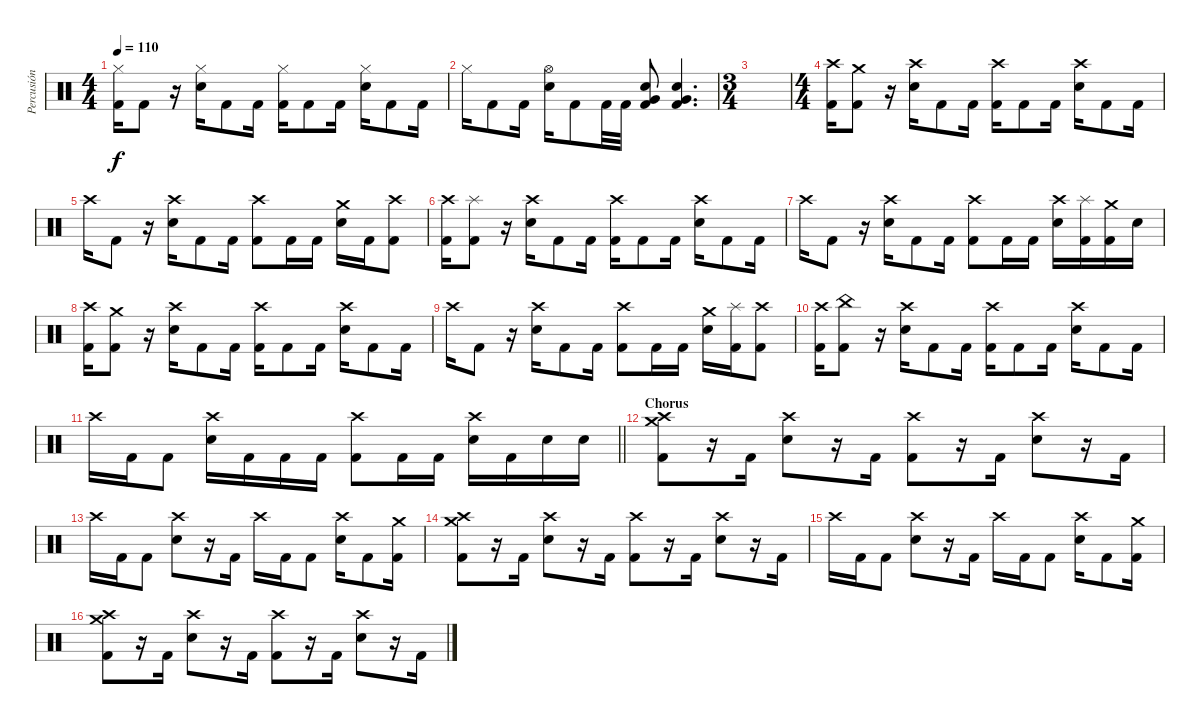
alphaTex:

\track ("Percusión" "Percusión") {instrument percussion}
\staff {score}
\articulation defaults
\ts (4 4)
\tempo 110
\clef neutral
\ks c
("Hi-Hat (closed)" "Kick (hit) 2").16{dy f} "Kick (hit) 2".8 r.16 ("Hi-Hat (closed)" "Snare (hit) 2").16 "Kick (hit) 2".8 "Kick (hit) 2".16 ("Hi-Hat (closed)" "Kick (hit) 2").16 "Kick (hit) 2".8 "Kick (hit) 2".16 ("Hi-Hat (closed)" "Snare (hit) 2").16 "Kick (hit) 2".8 "Kick (hit) 2".16 |
"Hi-Hat (closed)".16 "Kick (hit) 2".8 "Kick (hit) 2".16 ("Hi-Hat (open)" "Snare (hit) 2").16 "Kick (hit) 2".8 "Kick (hit) 2".32 "Kick (hit) 2".32 ("Snare (hit) 2" "Very Low Tom (hit)" "Kick (hit) 2").8 ("Snare (hit) 2" "Very Low Tom (hit)" "Kick (hit) 2").4{d} |
\ts (3 4)
|
\ts (4 4)
("Crash high (hit)" "Kick (hit) 2").16 ("Crash medium (hit)" "Kick (hit) 2").8 r.16 ("Crash high (hit)" "Snare (hit) 2").16 "Kick (hit) 2".8 "Kick (hit) 2".16 ("Crash high (hit)" "Kick (hit) 2").16 "Kick (hit) 2".8 "Kick (hit) 2".16 ("Crash high (hit)" "Snare (hit) 2").16 "Kick (hit) 2".8 "Kick (hit) 2".16 |
"Crash high (hit)".16 "Kick (hit) 2".8 r.16 ("Crash high (hit)" "Snare (hit) 2").16 "Kick (hit) 2".8 "Kick (hit) 2".16 ("Crash high (hit)" "Kick (hit) 2").8 "Kick (hit) 2".16 "Kick (hit) 2".16 ("Crash medium (hit)" "Snare (hit) 2").16 "Kick (hit) 2".16 ("Crash high (hit)" "Kick (hit) 2").8 |
("Crash high (hit)" "Kick (hit) 2").16 ("Splash (hit)" "Kick (hit) 2").8 r.16 ("Crash high (hit)" "Snare (hit) 2").16 "Kick (hit) 2".8 "Kick (hit) 2".16 ("Crash high (hit)" "Kick (hit) 2").16 "Kick (hit) 2".8 "Kick (hit) 2".16 ("Crash high (hit)" "Snare (hit) 2").16 "Kick (hit) 2".8 "Kick (hit) 2".16 |
"Crash high (hit)".16 "Kick (hit) 2".8 r.16 ("Crash high (hit)" "Snare (hit) 2").16 "Kick (hit) 2".8 "Kick (hit) 2".16 ("Crash high (hit)" "Kick (hit) 2").8 "Kick (hit) 2".16 "Kick (hit) 2".16 ("Crash high (hit)" "Snare (hit) 2").16 ("Splash (hit)" "Kick (hit) 2").16 ("Crash medium (hit)" "Kick (hit) 2").16 "Snare (hit) 2".16 |
("Crash high (hit)" "Kick (hit) 2").16 ("Crash medium (hit)" "Kick (hit) 2").8 r.16 ("Crash high (hit)" "Snare (hit) 2").16 "Kick (hit) 2".8 "Kick (hit) 2".16 ("Crash high (hit)" "Kick (hit) 2").16 "Kick (hit) 2".8 "Kick (hit) 2".16 ("Crash high (hit)" "Snare (hit) 2").16 "Kick (hit) 2".8 "Kick (hit) 2".16 |
"Crash high (hit)".16 "Kick (hit) 2".8 r.16 ("Crash high (hit)" "Snare (hit) 2").16 "Kick (hit) 2".8 "Kick (hit) 2".16 ("Crash high (hit)" "Kick (hit) 2").8 "Kick (hit) 2".16 "Kick (hit) 2".16 ("Crash medium (hit)" "Snare (hit) 2").16 ("Splash (hit)" "Kick (hit) 2").16 ("Crash high (hit)" "Kick (hit) 2").8 |
("Crash high (hit)" "Kick (hit) 2").16 ("China (hit)" "Kick (hit) 2").8 r.16 ("Crash high (hit)" "Snare (hit) 2").16 "Kick (hit) 2".8 "Kick (hit) 2".16 ("Crash high (hit)" "Kick (hit) 2").16 "Kick (hit) 2".8 "Kick (hit) 2".16 ("Crash high (hit)" "Snare (hit) 2").16 "Kick (hit) 2".8 "Kick (hit) 2".16 |
\barLineRight lightlight "Crash high (hit)".16 "Kick (hit) 2".16 "Kick (hit) 2".8
("Crash high (hit)" "Snare (hit) 2").16 "Kick (hit) 2".16 "Kick (hit) 2".16 "Kick (hit) 2".16 ("Crash high (hit)" "Kick (hit) 2").8 "Kick (hit) 2".16 "Kick (hit) 2".16 ("Crash high (hit)" "Snare (hit) 2").16 "Kick (hit) 2".16 "Snare (hit) 2".16 "Snare (hit) 2".16 |
\section ("" "Chorus")
("Crash high (hit)" "Crash medium (hit)" "Kick (hit) 2").8 r.16 "Kick (hit) 2".16 ("Crash high (hit)" "Snare (hit) 2").8 r.16 "Kick (hit) 2".16 ("Crash high (hit)" "Kick (hit) 2").8 r.16 "Kick (hit) 2".16 ("Crash high (hit)" "Snare (hit) 2").8 r.16 "Kick (hit) 2".16 |
"Crash high (hit)".16 "Kick (hit) 2".16 "Kick (hit) 2".8 ("Crash high (hit)" "Snare (hit) 2").8 r.16 "Kick (hit) 2".16 "Crash high (hit)".16 "Kick (hit) 2".16 "Kick (hit) 2".8 ("Crash high (hit)" "Snare (hit) 2").16 "Kick (hit) 2".8 ("Crash medium (hit)" "Kick (hit) 2").16 |
("Crash high (hit)" "Crash medium (hit)" "Kick (hit) 2").8 r.16 "Kick (hit) 2".16 ("Crash high (hit)" "Snare (hit) 2").8 r.16 "Kick (hit) 2".16 ("Crash high (hit)" "Kick (hit) 2").8 r.16 "Kick (hit) 2".16 ("Crash high (hit)" "Snare (hit) 2").8 r.16 "Kick (hit) 2".16 |
"Crash high (hit)".16 "Kick (hit) 2".16 "Kick (hit) 2".8 ("Crash high (hit)" "Snare (hit) 2").8 r.16 "Kick (hit) 2".16 "Crash high (hit)".16 "Kick (hit) 2".16 "Kick (hit) 2".8 ("Crash high (hit)" "Snare (hit) 2").16 "Kick (hit) 2".8 ("Crash medium (hit)" "Kick (hit) 2").16 |
("Crash high (hit)" "Crash medium (hit)" "Kick (hit) 2").8 r.16 "Kick (hit) 2".16 ("Crash high (hit)" "Snare (hit) 2").8 r.16 "Kick (hit) 2".16 ("Crash high (hit)" "Kick (hit) 2").8 r.16 "Kick (hit) 2".16 ("Crash high (hit)" "Snare (hit) 2").8 r.16 "Kick (hit) 2".16
